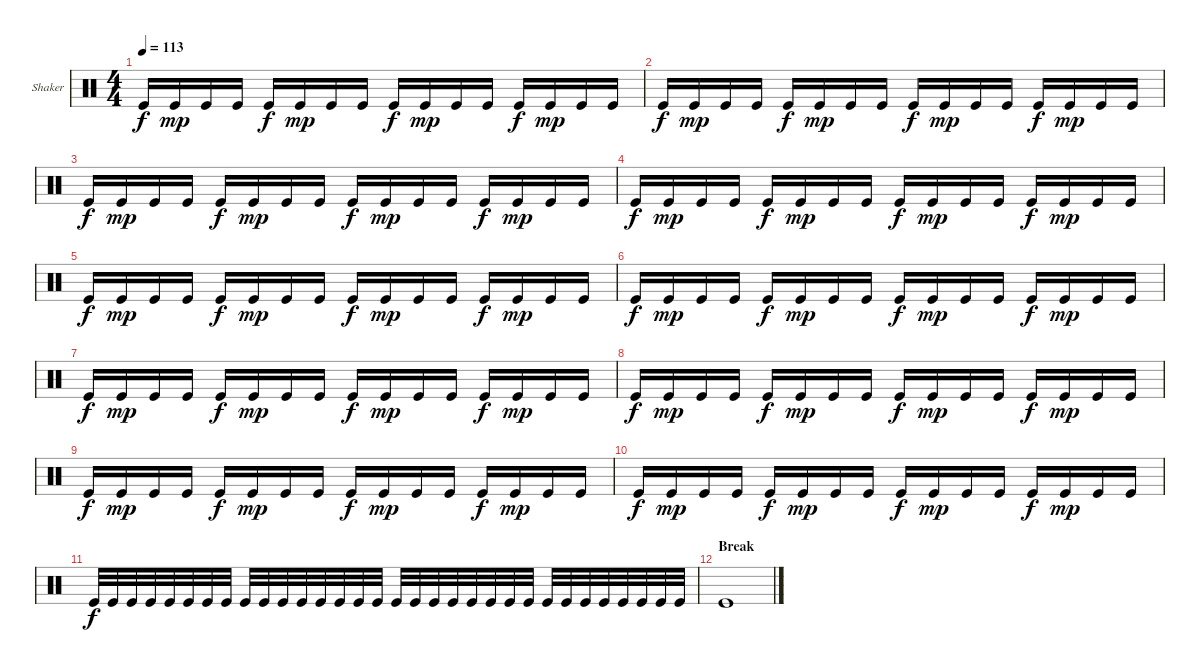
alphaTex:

\defaultSystemsLayout 4
\bracketExtendMode groupsimilarinstruments
\firstSystemTrackNameOrientation horizontal
\otherSystemsTrackNameOrientation horizontal
\track ("Shaker" "Shaker") {instrument percussion}
\staff {score}
\articulation defaults
\ts (4 4)
\tempo 113
\clef neutral
\scale
0.333333
\ks c "Kick (hit)".16{dy f} "Kick (hit)".16{dy mp} "Kick (hit)".16 "Kick (hit)".16 "Kick (hit)".16{dy f} "Kick (hit)".16{dy mp} "Kick (hit)".16 "Kick (hit)".16 "Kick (hit)".16{dy f} "Kick (hit)".16{dy mp} "Kick (hit)".16 "Kick (hit)".16 "Kick (hit)".16{dy f} "Kick (hit)".16{dy mp} "Kick (hit)".16 "Kick (hit)".16
|
\scale
0.333333 "Kick (hit)".16{dy f} "Kick (hit)".16{dy mp} "Kick (hit)".16 "Kick (hit)".16 "Kick (hit)".16{dy f} "Kick (hit)".16{dy mp} "Kick (hit)".16 "Kick (hit)".16 "Kick (hit)".16{dy f} "Kick (hit)".16{dy mp} "Kick (hit)".16 "Kick (hit)".16 "Kick (hit)".16{dy f} "Kick (hit)".16{dy mp} "Kick (hit)".16 "Kick (hit)".16 |
\scale
0.333333 "Kick (hit)".16{dy f} "Kick (hit)".16{dy mp} "Kick (hit)".16 "Kick (hit)".16 "Kick (hit)".16{dy f} "Kick (hit)".16{dy mp} "Kick (hit)".16 "Kick (hit)".16 "Kick (hit)".16{dy f} "Kick (hit)".16{dy mp} "Kick (hit)".16 "Kick (hit)".16 "Kick (hit)".16{dy f} "Kick (hit)".16{dy mp} "Kick (hit)".16 "Kick (hit)".16 |
\scale
0.333333 "Kick (hit)".16{dy f} "Kick (hit)".16{dy mp} "Kick (hit)".16 "Kick (hit)".16 "Kick (hit)".16{dy f} "Kick (hit)".16{dy mp} "Kick (hit)".16 "Kick (hit)".16 "Kick (hit)".16{dy f} "Kick (hit)".16{dy mp} "Kick (hit)".16 "Kick (hit)".16 "Kick (hit)".16{dy f} "Kick (hit)".16{dy mp} "Kick (hit)".16 "Kick (hit)".16 |
\scale
0.333333 "Kick (hit)".16{dy f} "Kick (hit)".16{dy mp} "Kick (hit)".16 "Kick (hit)".16 "Kick (hit)".16{dy f} "Kick (hit)".16{dy mp} "Kick (hit)".16 "Kick (hit)".16 "Kick (hit)".16{dy f} "Kick (hit)".16{dy mp} "Kick (hit)".16 "Kick (hit)".16 "Kick (hit)".16{dy f} "Kick (hit)".16{dy mp} "Kick (hit)".16 "Kick (hit)".16 |
\scale
0.333333 "Kick (hit)".16{dy f} "Kick (hit)".16{dy mp} "Kick (hit)".16 "Kick (hit)".16 "Kick (hit)".16{dy f} "Kick (hit)".16{dy mp} "Kick (hit)".16 "Kick (hit)".16 "Kick (hit)".16{dy f} "Kick (hit)".16{dy mp} "Kick (hit)".16 "Kick (hit)".16 "Kick (hit)".16{dy f} "Kick (hit)".16{dy mp} "Kick (hit)".16 "Kick (hit)".16 |
\scale
0.333333 "Kick (hit)".16{dy f} "Kick (hit)".16{dy mp} "Kick (hit)".16 "Kick (hit)".16 "Kick (hit)".16{dy f} "Kick (hit)".16{dy mp} "Kick (hit)".16 "Kick (hit)".16 "Kick (hit)".16{dy f} "Kick (hit)".16{dy mp} "Kick (hit)".16 "Kick (hit)".16 "Kick (hit)".16{dy f} "Kick (hit)".16{dy mp} "Kick (hit)".16 "Kick (hit)".16 |
\scale
0.333333 "Kick (hit)".16{dy f} "Kick (hit)".16{dy mp} "Kick (hit)".16 "Kick (hit)".16 "Kick (hit)".16{dy f} "Kick (hit)".16{dy mp} "Kick (hit)".16 "Kick (hit)".16 "Kick (hit)".16{dy f} "Kick (hit)".16{dy mp} "Kick (hit)".16 "Kick (hit)".16 "Kick (hit)".16{dy f} "Kick (hit)".16{dy mp} "Kick (hit)".16 "Kick (hit)".16 |
\scale
0.333333 "Kick (hit)".16{dy f} "Kick (hit)".16{dy mp} "Kick (hit)".16 "Kick (hit)".16 "Kick (hit)".16{dy f} "Kick (hit)".16{dy mp} "Kick (hit)".16 "Kick (hit)".16 "Kick (hit)".16{dy f} "Kick (hit)".16{dy mp} "Kick (hit)".16 "Kick (hit)".16 "Kick (hit)".16{dy f} "Kick (hit)".16{dy mp} "Kick (hit)".16 "Kick (hit)".16 |
\scale
0.333333 "Kick (hit)".16{dy f} "Kick (hit)".16{dy mp} "Kick (hit)".16 "Kick (hit)".16 "Kick (hit)".16{dy f} "Kick (hit)".16{dy mp} "Kick (hit)".16 "Kick (hit)".16 "Kick (hit)".16{dy f} "Kick (hit)".16{dy mp} "Kick (hit)".16 "Kick (hit)".16 "Kick (hit)".16{dy f} "Kick (hit)".16{dy mp} "Kick (hit)".16 "Kick (hit)".16 |
"Kick (hit)".32{dy f} "Kick (hit)".32 "Kick (hit)".32 "Kick (hit)".32 "Kick (hit)".32 "Kick (hit)".32 "Kick (hit)".32 "Kick (hit)".32 "Kick (hit)".32 "Kick (hit)".32 "Kick (hit)".32 "Kick (hit)".32 "Kick (hit)".32 "Kick (hit)".32 "Kick (hit)".32 "Kick (hit)".32 "Kick (hit)".32 "Kick (hit)".32 "Kick (hit)".32 "Kick (hit)".32 "Kick (hit)".32 "Kick (hit)".32 "Kick (hit)".32 "Kick (hit)".32 "Kick (hit)".32 "Kick (hit)".32 "Kick (hit)".32 "Kick (hit)".32 "Kick (hit)".32 "Kick (hit)".32 "Kick (hit)".32 "Kick (hit)".32 |
\section ("" "Break")
"Kick (hit)".1
